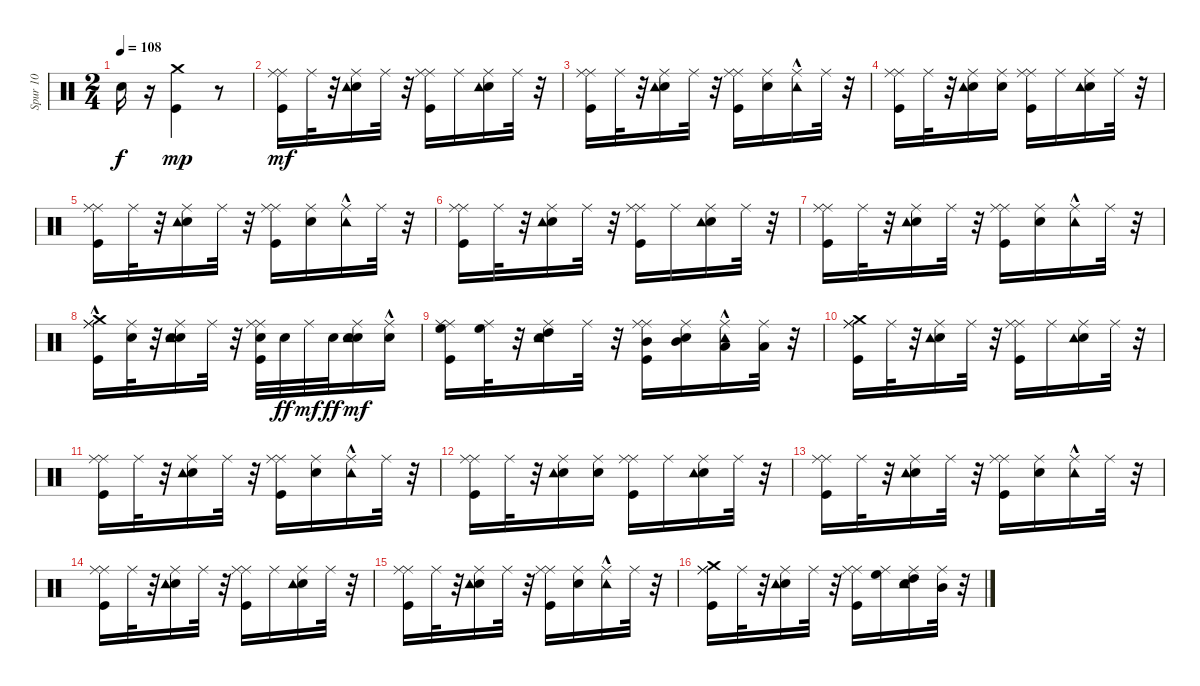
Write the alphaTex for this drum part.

\track ("Spur 10" "Spur 10") {instrument percussion}
\staff {score}
\articulation defaults
\ts (2 4)
\tempo 108
\clef neutral
\ks c "Snare (hit)"{t}.16{dy f}
r.16 ("Kick (hit)" "Crash medium (hit)").4{dy mp} r.8 |
("Ride (middle)" "Ride (middle)" "Kick (hit)").16{dy mf} "Ride (middle)".32 r.32 ("Electric Snare (hit)" "Ride (middle)" "Tambourine (hit)").16 "Ride (middle)".32 r.32 ("Ride (middle)" "Ride (middle)" "Kick (hit)").16 "Ride (middle)".16 ("Electric Snare (hit)" "Ride (middle)" "Tambourine (hit)").16 "Ride (middle)".32 r.32 |
("Ride (middle)" "Ride (middle)" "Kick (hit)").16 "Ride (middle)".32 r.32 ("Electric Snare (hit)" "Ride (middle)" "Tambourine (hit)").16 "Ride (middle)".32 r.32 ("Ride (middle)" "Ride (middle)" "Kick (hit)").16 ("Electric Snare (hit)" "Ride (middle)").16 ("Ride (middle)" "Tambourine (hit)"{hac}).16 "Ride (middle)".32 r.32 |
("Ride (middle)" "Ride (middle)" "Kick (hit)").16 "Ride (middle)".32 r.32 ("Electric Snare (hit)" "Ride (middle)" "Tambourine (hit)").16 ("Electric Snare (hit)" "Ride (middle)").16 ("Ride (middle)" "Ride (middle)" "Kick (hit)").16 "Ride (middle)".16 ("Electric Snare (hit)" "Ride (middle)" "Tambourine (hit)").16 "Ride (middle)".32 r.32 |
("Ride (middle)" "Ride (middle)" "Kick (hit)").16 "Ride (middle)".32 r.32 ("Electric Snare (hit)" "Ride (middle)" "Tambourine (hit)").16 "Ride (middle)".32 r.32 ("Ride (middle)" "Ride (middle)" "Kick (hit)").16 ("Electric Snare (hit)" "Ride (middle)").16 ("Ride (middle)" "Tambourine (hit)"{hac}).16 "Ride (middle)".32 r.32 |
("Ride (middle)" "Ride (middle)" "Kick (hit)").16 "Ride (middle)".32 r.32 ("Electric Snare (hit)" "Ride (middle)" "Tambourine (hit)").16 "Ride (middle)".32 r.32 ("Ride (middle)" "Ride (middle)" "Kick (hit)").16 "Ride (middle)".16 ("Electric Snare (hit)" "Ride (middle)" "Tambourine (hit)").16 "Ride (middle)".32 r.32 |
("Ride (middle)" "Ride (middle)" "Kick (hit)").16 "Ride (middle)".32 r.32 ("Electric Snare (hit)" "Ride (middle)" "Tambourine (hit)").16 "Ride (middle)".32 r.32 ("Ride (middle)" "Ride (middle)" "Kick (hit)").16 ("Electric Snare (hit)" "Ride (middle)").16 ("Ride (middle)" "Tambourine (hit)"{hac}).16 "Ride (middle)".32 r.32 |
("Crash medium (hit)"{hac} "Ride (middle)" "Ride (middle)" "Kick (hit)").16 ("Electric Snare (hit)" "Ride (middle)").32 r.32 ("Electric Snare (hit)" "Electric Snare (hit)" "Ride (middle)" "Tambourine (hit)").16 "Ride (middle)".32 r.32 ("Electric Snare (hit)" "Ride (middle)" "Ride (middle)" "Kick (hit)").32 "Electric Snare (hit)".32{dy ff} "Ride (middle)".32{dy mf} "Electric Snare (hit)".32{dy ff} ("Electric Snare (hit)" "Electric Snare (hit)" "Ride (middle)" "Tambourine (hit)").16{dy mf} ("Electric Snare (hit)"{hac} "Ride (middle)").16 |
("High Floor Tom (hit)" "Ride (middle)" "Ride (middle)" "Kick (hit)").16 ("High Floor Tom (hit)" "Ride (middle)").32 r.32 ("High Tom (hit)" "Electric Snare (hit)" "Ride (middle)" "Tambourine (hit)").16 "Ride (middle)".32 r.32 ("Mid Tom (hit)" "Ride (middle)" "Ride (middle)" "Kick (hit)").16 ("Mid Tom (hit)" "Electric Snare (hit)" "Ride (middle)").16 ("Low Tom (hit)" "Ride (middle)" "Tambourine (hit)"{hac}).16 ("Low Tom (hit)" "Ride (middle)").32 r.32 |
("Crash medium (hit)" "Ride (middle)" "Ride (middle)" "Kick (hit)").16 "Ride (middle)".32 r.32 ("Electric Snare (hit)" "Ride (middle)" "Tambourine (hit)").16 "Ride (middle)".32 r.32 ("Ride (middle)" "Ride (middle)" "Kick (hit)").16 "Ride (middle)".16 ("Electric Snare (hit)" "Ride (middle)" "Tambourine (hit)").16 "Ride (middle)".32 r.32 |
("Ride (middle)" "Ride (middle)" "Kick (hit)").16 "Ride (middle)".32 r.32 ("Electric Snare (hit)" "Ride (middle)" "Tambourine (hit)").16 "Ride (middle)".32 r.32 ("Ride (middle)" "Ride (middle)" "Kick (hit)").16 ("Electric Snare (hit)" "Ride (middle)").16 ("Ride (middle)" "Tambourine (hit)"{hac}).16 "Ride (middle)".32 r.32 |
("Ride (middle)" "Ride (middle)" "Kick (hit)").16 "Ride (middle)".32 r.32 ("Electric Snare (hit)" "Ride (middle)" "Tambourine (hit)").16 ("Electric Snare (hit)" "Ride (middle)").16 ("Ride (middle)" "Ride (middle)" "Kick (hit)").16 "Ride (middle)".16 ("Electric Snare (hit)" "Ride (middle)" "Tambourine (hit)").16 "Ride (middle)".32 r.32 |
("Ride (middle)" "Ride (middle)" "Kick (hit)").16 "Ride (middle)".32 r.32 ("Electric Snare (hit)" "Ride (middle)" "Tambourine (hit)").16 "Ride (middle)".32 r.32 ("Ride (middle)" "Ride (middle)" "Kick (hit)").16 ("Electric Snare (hit)" "Ride (middle)").16 ("Ride (middle)" "Tambourine (hit)"{hac}).16 "Ride (middle)".32 r.32 |
("Ride (middle)" "Ride (middle)" "Kick (hit)").16 "Ride (middle)".32 r.32 ("Electric Snare (hit)" "Ride (middle)" "Tambourine (hit)").16 "Ride (middle)".32 r.32 ("Ride (middle)" "Ride (middle)" "Kick (hit)").16 "Ride (middle)".16 ("Electric Snare (hit)" "Ride (middle)" "Tambourine (hit)").16 "Ride (middle)".32 r.32 |
("Ride (middle)" "Ride (middle)" "Kick (hit)").16 "Ride (middle)".32 r.32 ("Electric Snare (hit)" "Ride (middle)" "Tambourine (hit)").16 "Ride (middle)".32 r.32 ("Ride (middle)" "Ride (middle)" "Kick (hit)").16 ("Electric Snare (hit)" "Ride (middle)").16 ("Ride (middle)" "Tambourine (hit)"{hac}).16 "Ride (middle)".32 r.32 |
("Crash medium (hit)" "Ride (middle)" "Ride (middle)" "Kick (hit)").16 "Ride (middle)".32 r.32 ("Electric Snare (hit)" "Ride (middle)" "Tambourine (hit)").16 "Ride (middle)".32 r.32 ("Ride (middle)" "Ride (middle)" "Kick (hit)").16 ("High Floor Tom (hit)" "Ride (middle)").16 ("High Tom (hit)" "Electric Snare (hit)" "Ride (middle)" "Tambourine (hit)").16 ("Mid Tom (hit)" "Ride (middle)").32 r.32
